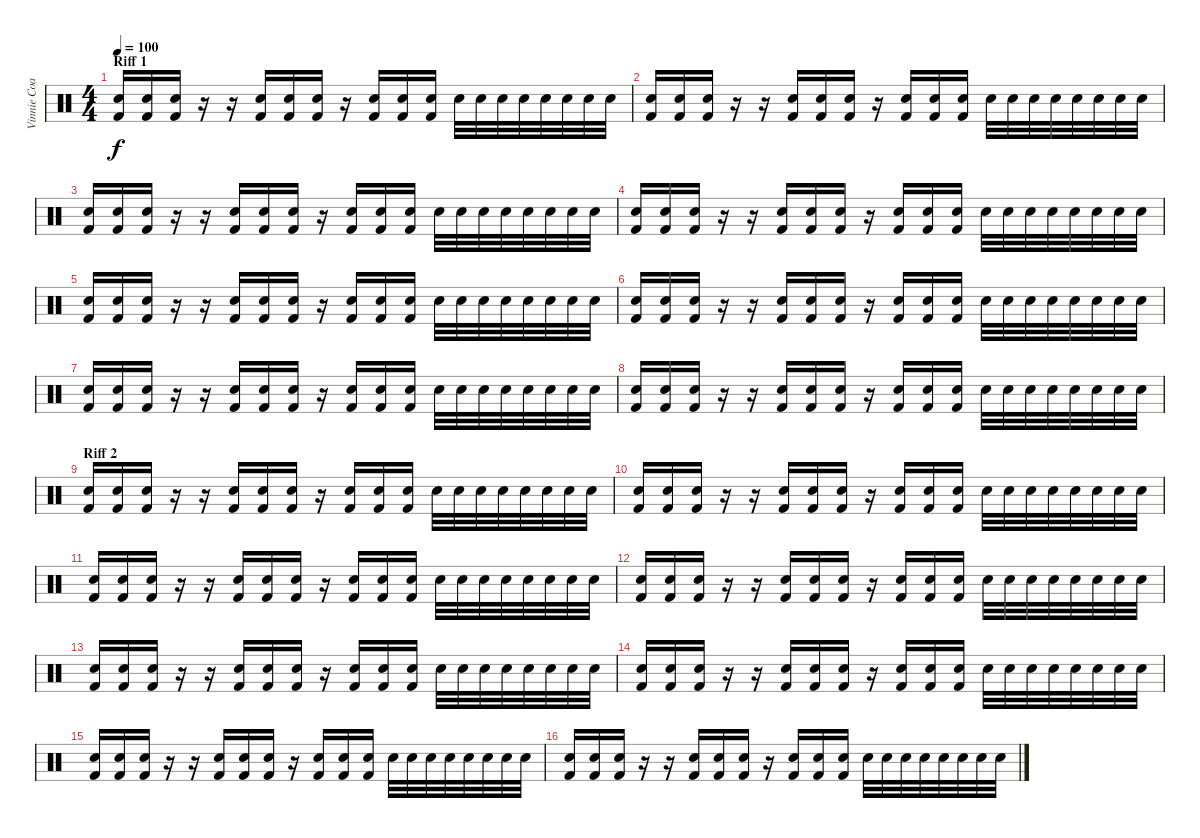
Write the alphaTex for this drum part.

\track ("Vinnie Coaiuta" "Vinnie Coa") {instrument percussion}
\staff {score}
\articulation defaults
\ts (4 4)
\section ("" "Riff 1")
\tempo 100
\clef neutral
\ks c
("Snare (hit) 2" "Kick (hit) 2").16{dy f} ("Snare (hit) 2" "Kick (hit) 2").16 ("Snare (hit) 2" "Kick (hit) 2").16 r.16 r.16 ("Snare (hit) 2" "Kick (hit) 2").16 ("Snare (hit) 2" "Kick (hit) 2").16 ("Snare (hit) 2" "Kick (hit) 2").16 r.16 ("Snare (hit) 2" "Kick (hit) 2").16 ("Snare (hit) 2" "Kick (hit) 2").16 ("Snare (hit) 2" "Kick (hit) 2").16 "Snare (hit) 2".32 "Snare (hit) 2".32 "Snare (hit) 2".32 "Snare (hit) 2".32 "Snare (hit) 2".32 "Snare (hit) 2".32 "Snare (hit) 2".32 "Snare (hit) 2".32 |
("Snare (hit) 2" "Kick (hit) 2").16 ("Snare (hit) 2" "Kick (hit) 2").16 ("Snare (hit) 2" "Kick (hit) 2").16 r.16 r.16 ("Snare (hit) 2" "Kick (hit) 2").16 ("Snare (hit) 2" "Kick (hit) 2").16 ("Snare (hit) 2" "Kick (hit) 2").16 r.16 ("Snare (hit) 2" "Kick (hit) 2").16 ("Snare (hit) 2" "Kick (hit) 2").16 ("Snare (hit) 2" "Kick (hit) 2").16 "Snare (hit) 2".32 "Snare (hit) 2".32 "Snare (hit) 2".32 "Snare (hit) 2".32 "Snare (hit) 2".32 "Snare (hit) 2".32 "Snare (hit) 2".32 "Snare (hit) 2".32 |
("Snare (hit) 2" "Kick (hit) 2").16 ("Snare (hit) 2" "Kick (hit) 2").16 ("Snare (hit) 2" "Kick (hit) 2").16 r.16 r.16 ("Snare (hit) 2" "Kick (hit) 2").16 ("Snare (hit) 2" "Kick (hit) 2").16 ("Snare (hit) 2" "Kick (hit) 2").16 r.16 ("Snare (hit) 2" "Kick (hit) 2").16 ("Snare (hit) 2" "Kick (hit) 2").16 ("Snare (hit) 2" "Kick (hit) 2").16 "Snare (hit) 2".32 "Snare (hit) 2".32 "Snare (hit) 2".32 "Snare (hit) 2".32 "Snare (hit) 2".32 "Snare (hit) 2".32 "Snare (hit) 2".32 "Snare (hit) 2".32 |
("Snare (hit) 2" "Kick (hit) 2").16 ("Snare (hit) 2" "Kick (hit) 2").16 ("Snare (hit) 2" "Kick (hit) 2").16 r.16 r.16 ("Snare (hit) 2" "Kick (hit) 2").16 ("Snare (hit) 2" "Kick (hit) 2").16 ("Snare (hit) 2" "Kick (hit) 2").16 r.16 ("Snare (hit) 2" "Kick (hit) 2").16 ("Snare (hit) 2" "Kick (hit) 2").16 ("Snare (hit) 2" "Kick (hit) 2").16 "Snare (hit) 2".32 "Snare (hit) 2".32 "Snare (hit) 2".32 "Snare (hit) 2".32 "Snare (hit) 2".32 "Snare (hit) 2".32 "Snare (hit) 2".32 "Snare (hit) 2".32 |
("Snare (hit) 2" "Kick (hit) 2").16 ("Snare (hit) 2" "Kick (hit) 2").16 ("Snare (hit) 2" "Kick (hit) 2").16 r.16 r.16 ("Snare (hit) 2" "Kick (hit) 2").16 ("Snare (hit) 2" "Kick (hit) 2").16 ("Snare (hit) 2" "Kick (hit) 2").16 r.16 ("Snare (hit) 2" "Kick (hit) 2").16 ("Snare (hit) 2" "Kick (hit) 2").16 ("Snare (hit) 2" "Kick (hit) 2").16 "Snare (hit) 2".32 "Snare (hit) 2".32 "Snare (hit) 2".32 "Snare (hit) 2".32 "Snare (hit) 2".32 "Snare (hit) 2".32 "Snare (hit) 2".32 "Snare (hit) 2".32 |
("Snare (hit) 2" "Kick (hit) 2").16 ("Snare (hit) 2" "Kick (hit) 2").16 ("Snare (hit) 2" "Kick (hit) 2").16 r.16 r.16 ("Snare (hit) 2" "Kick (hit) 2").16 ("Snare (hit) 2" "Kick (hit) 2").16 ("Snare (hit) 2" "Kick (hit) 2").16 r.16 ("Snare (hit) 2" "Kick (hit) 2").16 ("Snare (hit) 2" "Kick (hit) 2").16 ("Snare (hit) 2" "Kick (hit) 2").16 "Snare (hit) 2".32 "Snare (hit) 2".32 "Snare (hit) 2".32 "Snare (hit) 2".32 "Snare (hit) 2".32 "Snare (hit) 2".32 "Snare (hit) 2".32 "Snare (hit) 2".32 |
("Snare (hit) 2" "Kick (hit) 2").16 ("Snare (hit) 2" "Kick (hit) 2").16 ("Snare (hit) 2" "Kick (hit) 2").16 r.16 r.16 ("Snare (hit) 2" "Kick (hit) 2").16 ("Snare (hit) 2" "Kick (hit) 2").16 ("Snare (hit) 2" "Kick (hit) 2").16 r.16 ("Snare (hit) 2" "Kick (hit) 2").16 ("Snare (hit) 2" "Kick (hit) 2").16 ("Snare (hit) 2" "Kick (hit) 2").16 "Snare (hit) 2".32 "Snare (hit) 2".32 "Snare (hit) 2".32 "Snare (hit) 2".32 "Snare (hit) 2".32 "Snare (hit) 2".32 "Snare (hit) 2".32 "Snare (hit) 2".32 |
("Snare (hit) 2" "Kick (hit) 2").16 ("Snare (hit) 2" "Kick (hit) 2").16 ("Snare (hit) 2" "Kick (hit) 2").16 r.16 r.16 ("Snare (hit) 2" "Kick (hit) 2").16 ("Snare (hit) 2" "Kick (hit) 2").16 ("Snare (hit) 2" "Kick (hit) 2").16 r.16 ("Snare (hit) 2" "Kick (hit) 2").16 ("Snare (hit) 2" "Kick (hit) 2").16 ("Snare (hit) 2" "Kick (hit) 2").16 "Snare (hit) 2".32 "Snare (hit) 2".32 "Snare (hit) 2".32 "Snare (hit) 2".32 "Snare (hit) 2".32 "Snare (hit) 2".32 "Snare (hit) 2".32 "Snare (hit) 2".32 |
\section ("" "Riff 2")
("Snare (hit) 2" "Kick (hit) 2").16 ("Snare (hit) 2" "Kick (hit) 2").16 ("Snare (hit) 2" "Kick (hit) 2").16 r.16 r.16 ("Snare (hit) 2" "Kick (hit) 2").16 ("Snare (hit) 2" "Kick (hit) 2").16 ("Snare (hit) 2" "Kick (hit) 2").16 r.16 ("Snare (hit) 2" "Kick (hit) 2").16 ("Snare (hit) 2" "Kick (hit) 2").16 ("Snare (hit) 2" "Kick (hit) 2").16 "Snare (hit) 2".32 "Snare (hit) 2".32 "Snare (hit) 2".32 "Snare (hit) 2".32 "Snare (hit) 2".32 "Snare (hit) 2".32 "Snare (hit) 2".32 "Snare (hit) 2".32 |
("Snare (hit) 2" "Kick (hit) 2").16 ("Snare (hit) 2" "Kick (hit) 2").16 ("Snare (hit) 2" "Kick (hit) 2").16 r.16 r.16 ("Snare (hit) 2" "Kick (hit) 2").16 ("Snare (hit) 2" "Kick (hit) 2").16 ("Snare (hit) 2" "Kick (hit) 2").16 r.16 ("Snare (hit) 2" "Kick (hit) 2").16 ("Snare (hit) 2" "Kick (hit) 2").16 ("Snare (hit) 2" "Kick (hit) 2").16 "Snare (hit) 2".32 "Snare (hit) 2".32 "Snare (hit) 2".32 "Snare (hit) 2".32 "Snare (hit) 2".32 "Snare (hit) 2".32 "Snare (hit) 2".32 "Snare (hit) 2".32 |
("Snare (hit) 2" "Kick (hit) 2").16 ("Snare (hit) 2" "Kick (hit) 2").16 ("Snare (hit) 2" "Kick (hit) 2").16 r.16 r.16 ("Snare (hit) 2" "Kick (hit) 2").16 ("Snare (hit) 2" "Kick (hit) 2").16 ("Snare (hit) 2" "Kick (hit) 2").16 r.16 ("Snare (hit) 2" "Kick (hit) 2").16 ("Snare (hit) 2" "Kick (hit) 2").16 ("Snare (hit) 2" "Kick (hit) 2").16 "Snare (hit) 2".32 "Snare (hit) 2".32 "Snare (hit) 2".32 "Snare (hit) 2".32 "Snare (hit) 2".32 "Snare (hit) 2".32 "Snare (hit) 2".32 "Snare (hit) 2".32 |
("Snare (hit) 2" "Kick (hit) 2").16 ("Snare (hit) 2" "Kick (hit) 2").16 ("Snare (hit) 2" "Kick (hit) 2").16 r.16 r.16 ("Snare (hit) 2" "Kick (hit) 2").16 ("Snare (hit) 2" "Kick (hit) 2").16 ("Snare (hit) 2" "Kick (hit) 2").16 r.16 ("Snare (hit) 2" "Kick (hit) 2").16 ("Snare (hit) 2" "Kick (hit) 2").16 ("Snare (hit) 2" "Kick (hit) 2").16 "Snare (hit) 2".32 "Snare (hit) 2".32 "Snare (hit) 2".32 "Snare (hit) 2".32 "Snare (hit) 2".32 "Snare (hit) 2".32 "Snare (hit) 2".32 "Snare (hit) 2".32 |
("Snare (hit) 2" "Kick (hit) 2").16 ("Snare (hit) 2" "Kick (hit) 2").16 ("Snare (hit) 2" "Kick (hit) 2").16 r.16 r.16 ("Snare (hit) 2" "Kick (hit) 2").16 ("Snare (hit) 2" "Kick (hit) 2").16 ("Snare (hit) 2" "Kick (hit) 2").16 r.16 ("Snare (hit) 2" "Kick (hit) 2").16 ("Snare (hit) 2" "Kick (hit) 2").16 ("Snare (hit) 2" "Kick (hit) 2").16 "Snare (hit) 2".32 "Snare (hit) 2".32 "Snare (hit) 2".32 "Snare (hit) 2".32 "Snare (hit) 2".32 "Snare (hit) 2".32 "Snare (hit) 2".32 "Snare (hit) 2".32 |
("Snare (hit) 2" "Kick (hit) 2").16 ("Snare (hit) 2" "Kick (hit) 2").16 ("Snare (hit) 2" "Kick (hit) 2").16 r.16 r.16 ("Snare (hit) 2" "Kick (hit) 2").16 ("Snare (hit) 2" "Kick (hit) 2").16 ("Snare (hit) 2" "Kick (hit) 2").16 r.16 ("Snare (hit) 2" "Kick (hit) 2").16 ("Snare (hit) 2" "Kick (hit) 2").16 ("Snare (hit) 2" "Kick (hit) 2").16 "Snare (hit) 2".32 "Snare (hit) 2".32 "Snare (hit) 2".32 "Snare (hit) 2".32 "Snare (hit) 2".32 "Snare (hit) 2".32 "Snare (hit) 2".32 "Snare (hit) 2".32 |
("Snare (hit) 2" "Kick (hit) 2").16 ("Snare (hit) 2" "Kick (hit) 2").16 ("Snare (hit) 2" "Kick (hit) 2").16 r.16 r.16 ("Snare (hit) 2" "Kick (hit) 2").16 ("Snare (hit) 2" "Kick (hit) 2").16 ("Snare (hit) 2" "Kick (hit) 2").16 r.16 ("Snare (hit) 2" "Kick (hit) 2").16 ("Snare (hit) 2" "Kick (hit) 2").16 ("Snare (hit) 2" "Kick (hit) 2").16 "Snare (hit) 2".32 "Snare (hit) 2".32 "Snare (hit) 2".32 "Snare (hit) 2".32 "Snare (hit) 2".32 "Snare (hit) 2".32 "Snare (hit) 2".32 "Snare (hit) 2".32 |
("Snare (hit) 2" "Kick (hit) 2").16 ("Snare (hit) 2" "Kick (hit) 2").16 ("Snare (hit) 2" "Kick (hit) 2").16 r.16 r.16 ("Snare (hit) 2" "Kick (hit) 2").16 ("Snare (hit) 2" "Kick (hit) 2").16 ("Snare (hit) 2" "Kick (hit) 2").16 r.16 ("Snare (hit) 2" "Kick (hit) 2").16 ("Snare (hit) 2" "Kick (hit) 2").16 ("Snare (hit) 2" "Kick (hit) 2").16 "Snare (hit) 2".32 "Snare (hit) 2".32 "Snare (hit) 2".32 "Snare (hit) 2".32 "Snare (hit) 2".32 "Snare (hit) 2".32 "Snare (hit) 2".32 "Snare (hit) 2".32
